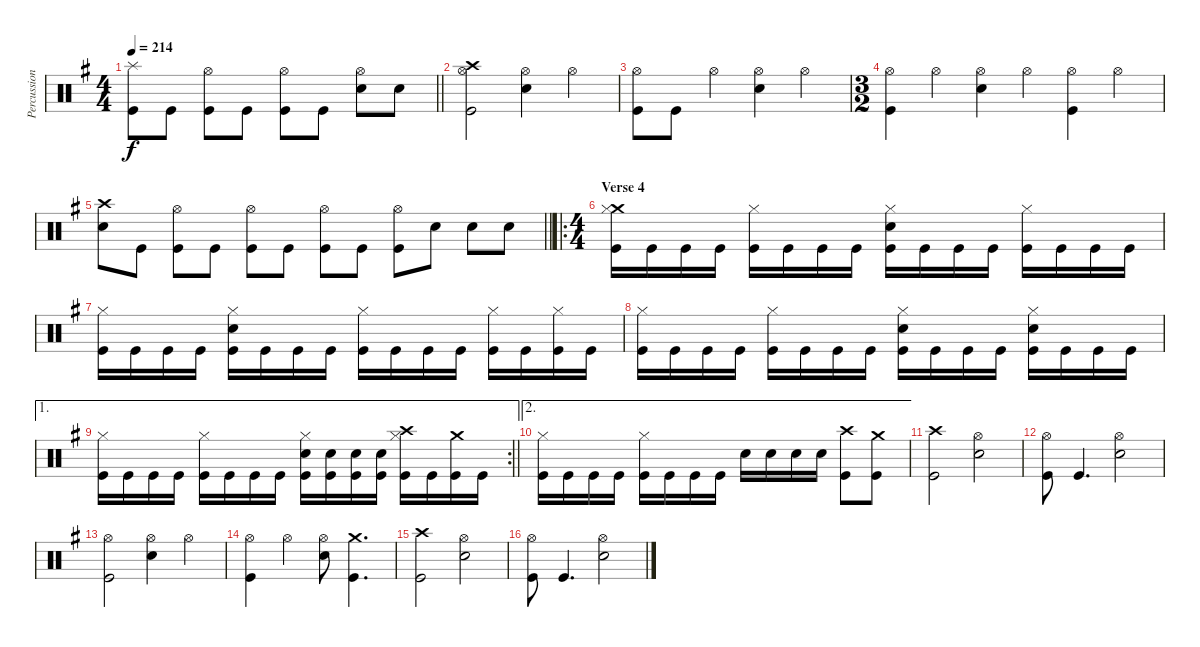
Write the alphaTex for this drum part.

\track ("Percussion" "Percussion") {instrument percussion}
\staff {score}
\articulation defaults
\ts (4 4)
\tempo 214
\clef neutral
\barLineRight lightlight
\ks eminor
("Splash (hit)" "Kick (hit)").8{dy f} "Kick (hit)".8 ("Hi-Hat (open)" "Kick (hit)").8 "Kick (hit)".8 ("Hi-Hat (open)" "Kick (hit)").8 "Kick (hit)".8 ("Hi-Hat (open)" "Snare (hit) 2").8 "Snare (hit) 2".8 |
("Crash high (hit)" "Hi-Hat (open)" "Kick (hit)").2 ("Hi-Hat (open)" "Snare (hit) 2").4 "Hi-Hat (open)".4 |
("Hi-Hat (open)" "Kick (hit)").8 "Kick (hit)".8 "Hi-Hat (open)".4 ("Hi-Hat (open)" "Snare (hit) 2").4 "Hi-Hat (open)".4 |
\ts (3 2)
("Hi-Hat (open)" "Kick (hit)").4 "Hi-Hat (open)".4 ("Hi-Hat (open)" "Snare (hit) 2").4 "Hi-Hat (open)".4 ("Hi-Hat (open)" "Kick (hit)").4 "Hi-Hat (open)".4 |
\barLineRight lightlight
("Crash high (hit)" "Snare (hit) 2").8 "Kick (hit)".8 ("Hi-Hat (open)" "Kick (hit)").8 "Kick (hit)".8 ("Hi-Hat (open)" "Kick (hit)").8 "Kick (hit)".8 ("Hi-Hat (open)" "Kick (hit)").8 "Kick (hit)".8 ("Hi-Hat (open)" "Kick (hit)").8 "Snare (hit) 2".8 "Snare (hit) 2".8 "Snare (hit) 2".8 |
\ro
\ts (4 4)
\section ("" "Verse 4")
("Crash medium (hit)" "Hi-Hat (closed)" "Kick (hit)").16 "Kick (hit)".16 "Kick (hit)".16 "Kick (hit)".16 ("Hi-Hat (closed)" "Kick (hit)").16 "Kick (hit)".16 "Kick (hit)".16 "Kick (hit)".16 ("Hi-Hat (closed)" "Snare (hit) 2" "Kick (hit)").16 "Kick (hit)".16 "Kick (hit)".16 "Kick (hit)".16 ("Hi-Hat (closed)" "Kick (hit)").16 "Kick (hit)".16 "Kick (hit)".16 "Kick (hit)".16 |
("Hi-Hat (closed)" "Kick (hit)").16 "Kick (hit)".16 "Kick (hit)".16 "Kick (hit)".16 ("Hi-Hat (closed)" "Snare (hit) 2" "Kick (hit)").16 "Kick (hit)".16 "Kick (hit)".16 "Kick (hit)".16 ("Hi-Hat (closed)" "Kick (hit)").16 "Kick (hit)".16 "Kick (hit)".16 "Kick (hit)".16 ("Hi-Hat (closed)" "Kick (hit)").16 "Kick (hit)".16 ("Hi-Hat (closed)" "Kick (hit)").16 "Kick (hit)".16 |
("Hi-Hat (closed)" "Kick (hit)").16 "Kick (hit)".16 "Kick (hit)".16 "Kick (hit)".16 ("Hi-Hat (closed)" "Kick (hit)").16 "Kick (hit)".16 "Kick (hit)".16 "Kick (hit)".16 ("Hi-Hat (closed)" "Snare (hit) 2" "Kick (hit)").16 "Kick (hit)".16 "Kick (hit)".16 "Kick (hit)".16 ("Hi-Hat (closed)" "Snare (hit) 2" "Kick (hit)").16 "Kick (hit)".16 "Kick (hit)".16 "Kick (hit)".16 |
\ae 1
\rc 2
\barLineRight lightlight
("Hi-Hat (closed)" "Kick (hit)").16 "Kick (hit)".16 "Kick (hit)".16 "Kick (hit)".16 ("Hi-Hat (closed)" "Kick (hit)").16 "Kick (hit)".16 "Kick (hit)".16 "Kick (hit)".16 ("Hi-Hat (closed)" "Snare (hit) 2" "Kick (hit)").16 ("Snare (hit) 2" "Kick (hit)").16 ("Snare (hit) 2" "Kick (hit)").16 ("Snare (hit) 2" "Kick (hit)").16 ("Crash high (hit)" "Hi-Hat (closed)" "Kick (hit)").16 "Kick (hit)".16 ("Crash medium (hit)" "Kick (hit)").16 "Kick (hit)".16 |
\ae 2
("Hi-Hat (closed)" "Kick (hit)").16 "Kick (hit)".16 "Kick (hit)".16 "Kick (hit)".16 ("Hi-Hat (closed)" "Kick (hit)").16 "Kick (hit)".16 "Kick (hit)".16 "Kick (hit)".16 "Snare (hit) 2".16 "Snare (hit) 2".16 "Snare (hit) 2".16 "Snare (hit) 2".16 ("Crash high (hit)" "Kick (hit)").8 ("Crash medium (hit)" "Kick (hit)").8 |
("Crash high (hit)" "Kick (hit)").2 ("Hi-Hat (open)" "Snare (hit) 2").2 |
("Hi-Hat (open)" "Kick (hit)").8 "Kick (hit)".4{d} ("Hi-Hat (open)" "Snare (hit) 2").2 |
("Hi-Hat (open)" "Kick (hit)").2 ("Hi-Hat (open)" "Snare (hit) 2").4 "Hi-Hat (open)".4 |
("Hi-Hat (open)" "Kick (hit)").4 "Hi-Hat (open)".4 ("Hi-Hat (open)" "Snare (hit) 2").8 ("Crash medium (hit)" "Kick (hit)").4{d} |
("Crash high (hit)" "Kick (hit)").2 ("Hi-Hat (open)" "Snare (hit) 2").2 |
("Hi-Hat (open)" "Kick (hit)").8 "Kick (hit)".4{d} ("Hi-Hat (open)" "Snare (hit) 2").2
